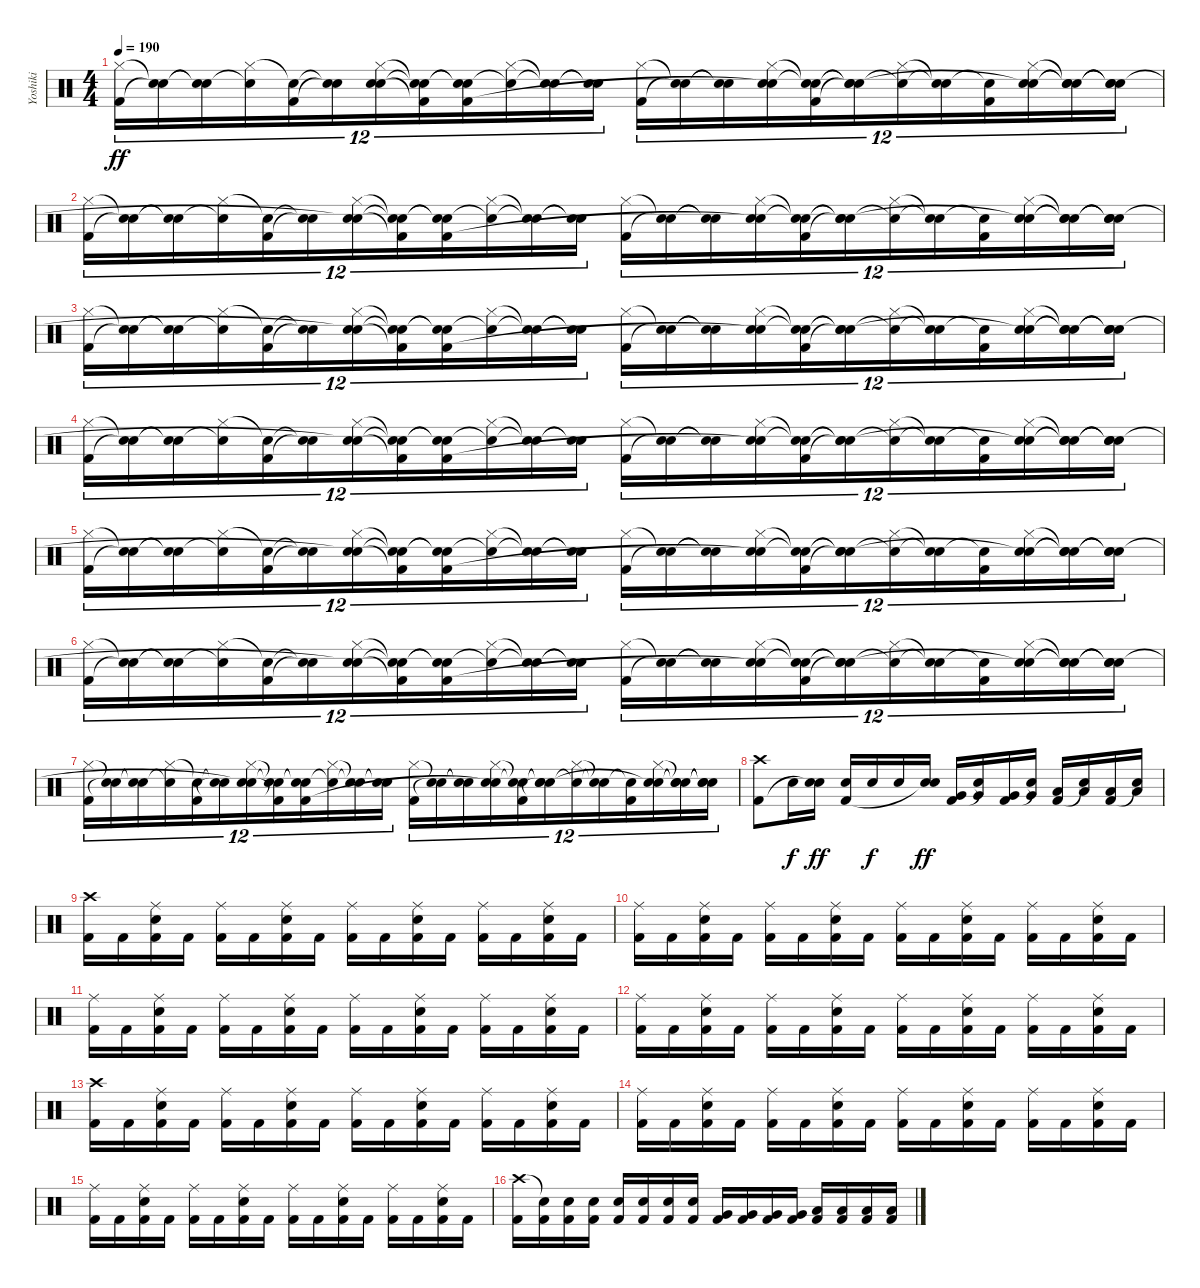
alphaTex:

\track ("Yoshiki" "Yoshiki") {instrument percussion}
\staff {score}
\articulation defaults
\ts (4 4)
\tempo 190
\clef neutral
\ks c
("Hi-Hat (closed)" "Kick (hit) 2").16{tu (12 8) dy ff} ("Snare (hit)"{t} "Snare (hit)"{t}).16{tu (12 8)} ("Snare (hit)"{t} "Snare (hit)"{t}).16{tu (12 8)} ("Hi-Hat (closed)" "Snare (hit)"{t}).16{tu (12 8)} ("Snare (hit)"{t} "Kick (hit) 2").16{tu (12 8)} ("Snare (hit)"{t} "Snare (hit)"{t}).16{tu (12 8)} ("Hi-Hat (closed)" "Snare (hit) 2" "Snare (hit)"{t}).16{tu (12 8)} ("Snare (hit)"{t} "Snare (hit)"{t} "Kick (hit) 2"{t}).16{tu (12 8)} ("Snare (hit)"{t} "Snare (hit)"{t} "Kick (hit) 2").16{tu (12 8)} ("Hi-Hat (closed)" "Snare (hit)"{t}).16{tu (12 8)} ("Snare (hit)"{t} "Snare (hit)"{t}).16{tu (12 8)} ("Snare (hit)"{t} "Snare (hit)"{t}).16{tu (12 8)} ("Hi-Hat (closed)" "Kick (hit) 2").16{tu (12 8)} ("Snare (hit)"{t} "Snare (hit)"{t}).16{tu (12 8)} ("Snare (hit)"{t} "Snare (hit)"{t}).16{tu (12 8)} ("Hi-Hat (closed)" "Snare (hit) 2" "Snare (hit)"{t}).16{tu (12 8)} ("Snare (hit)"{t} "Snare (hit)"{t} "Kick (hit) 2").16{tu (12 8)} ("Snare (hit)"{t} "Snare (hit)"{t} "Snare (hit)"{t}).16{tu (12 8)} ("Hi-Hat (closed)" "Snare (hit)"{t}).16{tu (12 8)} ("Snare (hit)"{t} "Snare (hit)"{t}).16{tu (12 8)} ("Snare (hit)"{t} "Kick (hit) 2").16{tu (12 8)} ("Hi-Hat (closed)" "Snare (hit) 2" "Snare (hit)"{t}).16{tu (12 8)} ("Snare (hit)"{t} "Snare (hit)"{t} "Snare (hit)"{t}).16{tu (12 8)} ("Snare (hit)"{t} "Snare (hit)"{t} "Snare (hit)"{t}).16{tu (12 8)} |
("Hi-Hat (closed)" "Kick (hit) 2").16{tu (12 8)} ("Snare (hit)"{t} "Snare (hit)"{t}).16{tu (12 8)} ("Snare (hit)"{t} "Snare (hit)"{t}).16{tu (12 8)} ("Hi-Hat (closed)" "Snare (hit)"{t}).16{tu (12 8)} ("Snare (hit)"{t} "Kick (hit) 2").16{tu (12 8)} ("Snare (hit)"{t} "Snare (hit)"{t}).16{tu (12 8)} ("Hi-Hat (closed)" "Snare (hit) 2" "Snare (hit)"{t}).16{tu (12 8)} ("Snare (hit)"{t} "Snare (hit)"{t} "Kick (hit) 2"{t}).16{tu (12 8)} ("Snare (hit)"{t} "Snare (hit)"{t} "Kick (hit) 2").16{tu (12 8)} ("Hi-Hat (closed)" "Snare (hit)"{t}).16{tu (12 8)} ("Snare (hit)"{t} "Snare (hit)"{t}).16{tu (12 8)} ("Snare (hit)"{t} "Snare (hit)"{t}).16{tu (12 8)} ("Hi-Hat (closed)" "Kick (hit) 2").16{tu (12 8)} ("Snare (hit)"{t} "Snare (hit)"{t}).16{tu (12 8)} ("Snare (hit)"{t} "Snare (hit)"{t}).16{tu (12 8)} ("Hi-Hat (closed)" "Snare (hit) 2" "Snare (hit)"{t}).16{tu (12 8)} ("Snare (hit)"{t} "Snare (hit)"{t} "Kick (hit) 2").16{tu (12 8)} ("Snare (hit)"{t} "Snare (hit)"{t} "Snare (hit)"{t}).16{tu (12 8)} ("Hi-Hat (closed)" "Snare (hit)"{t}).16{tu (12 8)} ("Snare (hit)"{t} "Snare (hit)"{t}).16{tu (12 8)} ("Snare (hit)"{t} "Kick (hit) 2").16{tu (12 8)} ("Hi-Hat (closed)" "Snare (hit) 2" "Snare (hit)"{t}).16{tu (12 8)} ("Snare (hit)"{t} "Snare (hit)"{t} "Snare (hit)"{t}).16{tu (12 8)} ("Snare (hit)"{t} "Snare (hit)"{t} "Snare (hit)"{t}).16{tu (12 8)} |
("Hi-Hat (closed)" "Kick (hit) 2").16{tu (12 8)} ("Snare (hit)"{t} "Snare (hit)"{t}).16{tu (12 8)} ("Snare (hit)"{t} "Snare (hit)"{t}).16{tu (12 8)} ("Hi-Hat (closed)" "Snare (hit)"{t}).16{tu (12 8)} ("Snare (hit)"{t} "Kick (hit) 2").16{tu (12 8)} ("Snare (hit)"{t} "Snare (hit)"{t}).16{tu (12 8)} ("Hi-Hat (closed)" "Snare (hit) 2" "Snare (hit)"{t}).16{tu (12 8)} ("Snare (hit)"{t} "Snare (hit)"{t} "Kick (hit) 2"{t}).16{tu (12 8)} ("Snare (hit)"{t} "Snare (hit)"{t} "Kick (hit) 2").16{tu (12 8)} ("Hi-Hat (closed)" "Snare (hit)"{t}).16{tu (12 8)} ("Snare (hit)"{t} "Snare (hit)"{t}).16{tu (12 8)} ("Snare (hit)"{t} "Snare (hit)"{t}).16{tu (12 8)} ("Hi-Hat (closed)" "Kick (hit) 2").16{tu (12 8)} ("Snare (hit)"{t} "Snare (hit)"{t}).16{tu (12 8)} ("Snare (hit)"{t} "Snare (hit)"{t}).16{tu (12 8)} ("Hi-Hat (closed)" "Snare (hit) 2" "Snare (hit)"{t}).16{tu (12 8)} ("Snare (hit)"{t} "Snare (hit)"{t} "Kick (hit) 2").16{tu (12 8)} ("Snare (hit)"{t} "Snare (hit)"{t} "Snare (hit)"{t}).16{tu (12 8)} ("Hi-Hat (closed)" "Snare (hit)"{t}).16{tu (12 8)} ("Snare (hit)"{t} "Snare (hit)"{t}).16{tu (12 8)} ("Snare (hit)"{t} "Kick (hit) 2").16{tu (12 8)} ("Hi-Hat (closed)" "Snare (hit) 2" "Snare (hit)"{t}).16{tu (12 8)} ("Snare (hit)"{t} "Snare (hit)"{t} "Snare (hit)"{t}).16{tu (12 8)} ("Snare (hit)"{t} "Snare (hit)"{t} "Snare (hit)"{t}).16{tu (12 8)} |
("Hi-Hat (closed)" "Kick (hit) 2").16{tu (12 8)} ("Snare (hit)"{t} "Snare (hit)"{t}).16{tu (12 8)} ("Snare (hit)"{t} "Snare (hit)"{t}).16{tu (12 8)} ("Hi-Hat (closed)" "Snare (hit)"{t}).16{tu (12 8)} ("Snare (hit)"{t} "Kick (hit) 2").16{tu (12 8)} ("Snare (hit)"{t} "Snare (hit)"{t}).16{tu (12 8)} ("Hi-Hat (closed)" "Snare (hit) 2" "Snare (hit)"{t}).16{tu (12 8)} ("Snare (hit)"{t} "Snare (hit)"{t} "Kick (hit) 2"{t}).16{tu (12 8)} ("Snare (hit)"{t} "Snare (hit)"{t} "Kick (hit) 2").16{tu (12 8)} ("Hi-Hat (closed)" "Snare (hit)"{t}).16{tu (12 8)} ("Snare (hit)"{t} "Snare (hit)"{t}).16{tu (12 8)} ("Snare (hit)"{t} "Snare (hit)"{t}).16{tu (12 8)} ("Hi-Hat (closed)" "Kick (hit) 2").16{tu (12 8)} ("Snare (hit)"{t} "Snare (hit)"{t}).16{tu (12 8)} ("Snare (hit)"{t} "Snare (hit)"{t}).16{tu (12 8)} ("Hi-Hat (closed)" "Snare (hit) 2" "Snare (hit)"{t}).16{tu (12 8)} ("Snare (hit)"{t} "Snare (hit)"{t} "Kick (hit) 2").16{tu (12 8)} ("Snare (hit)"{t} "Snare (hit)"{t} "Snare (hit)"{t}).16{tu (12 8)} ("Hi-Hat (closed)" "Snare (hit)"{t}).16{tu (12 8)} ("Snare (hit)"{t} "Snare (hit)"{t}).16{tu (12 8)} ("Snare (hit)"{t} "Kick (hit) 2").16{tu (12 8)} ("Hi-Hat (closed)" "Snare (hit) 2" "Snare (hit)"{t}).16{tu (12 8)} ("Snare (hit)"{t} "Snare (hit)"{t} "Snare (hit)"{t}).16{tu (12 8)} ("Snare (hit)"{t} "Snare (hit)"{t} "Snare (hit)"{t}).16{tu (12 8)} |
("Hi-Hat (closed)" "Kick (hit) 2").16{tu (12 8)} ("Snare (hit)"{t} "Snare (hit)"{t}).16{tu (12 8)} ("Snare (hit)"{t} "Snare (hit)"{t}).16{tu (12 8)} ("Hi-Hat (closed)" "Snare (hit)"{t}).16{tu (12 8)} ("Snare (hit)"{t} "Kick (hit) 2").16{tu (12 8)} ("Snare (hit)"{t} "Snare (hit)"{t}).16{tu (12 8)} ("Hi-Hat (closed)" "Snare (hit) 2" "Snare (hit)"{t}).16{tu (12 8)} ("Snare (hit)"{t} "Snare (hit)"{t} "Kick (hit) 2"{t}).16{tu (12 8)} ("Snare (hit)"{t} "Snare (hit)"{t} "Kick (hit) 2").16{tu (12 8)} ("Hi-Hat (closed)" "Snare (hit)"{t}).16{tu (12 8)} ("Snare (hit)"{t} "Snare (hit)"{t}).16{tu (12 8)} ("Snare (hit)"{t} "Snare (hit)"{t}).16{tu (12 8)} ("Hi-Hat (closed)" "Kick (hit) 2").16{tu (12 8)} ("Snare (hit)"{t} "Snare (hit)"{t}).16{tu (12 8)} ("Snare (hit)"{t} "Snare (hit)"{t}).16{tu (12 8)} ("Hi-Hat (closed)" "Snare (hit) 2" "Snare (hit)"{t}).16{tu (12 8)} ("Snare (hit)"{t} "Snare (hit)"{t} "Kick (hit) 2").16{tu (12 8)} ("Snare (hit)"{t} "Snare (hit)"{t} "Snare (hit)"{t}).16{tu (12 8)} ("Hi-Hat (closed)" "Snare (hit)"{t}).16{tu (12 8)} ("Snare (hit)"{t} "Snare (hit)"{t}).16{tu (12 8)} ("Snare (hit)"{t} "Kick (hit) 2").16{tu (12 8)} ("Hi-Hat (closed)" "Snare (hit) 2" "Snare (hit)"{t}).16{tu (12 8)} ("Snare (hit)"{t} "Snare (hit)"{t} "Snare (hit)"{t}).16{tu (12 8)} ("Snare (hit)"{t} "Snare (hit)"{t} "Snare (hit)"{t}).16{tu (12 8)} |
("Hi-Hat (closed)" "Kick (hit) 2").16{tu (12 8)} ("Snare (hit)"{t} "Snare (hit)"{t}).16{tu (12 8)} ("Snare (hit)"{t} "Snare (hit)"{t}).16{tu (12 8)} ("Hi-Hat (closed)" "Snare (hit)"{t}).16{tu (12 8)} ("Snare (hit)"{t} "Kick (hit) 2").16{tu (12 8)} ("Snare (hit)"{t} "Snare (hit)"{t}).16{tu (12 8)} ("Hi-Hat (closed)" "Snare (hit) 2" "Snare (hit)"{t}).16{tu (12 8)} ("Snare (hit)"{t} "Snare (hit)"{t} "Kick (hit) 2"{t}).16{tu (12 8)} ("Snare (hit)"{t} "Snare (hit)"{t} "Kick (hit) 2").16{tu (12 8)} ("Hi-Hat (closed)" "Snare (hit)"{t}).16{tu (12 8)} ("Snare (hit)"{t} "Snare (hit)"{t}).16{tu (12 8)} ("Snare (hit)"{t} "Snare (hit)"{t}).16{tu (12 8)} ("Hi-Hat (closed)" "Kick (hit) 2").16{tu (12 8)} ("Snare (hit)"{t} "Snare (hit)"{t}).16{tu (12 8)} ("Snare (hit)"{t} "Snare (hit)"{t}).16{tu (12 8)} ("Hi-Hat (closed)" "Snare (hit) 2" "Snare (hit)"{t}).16{tu (12 8)} ("Snare (hit)"{t} "Snare (hit)"{t} "Kick (hit) 2").16{tu (12 8)} ("Snare (hit)"{t} "Snare (hit)"{t} "Snare (hit)"{t}).16{tu (12 8)} ("Hi-Hat (closed)" "Snare (hit)"{t}).16{tu (12 8)} ("Snare (hit)"{t} "Snare (hit)"{t}).16{tu (12 8)} ("Snare (hit)"{t} "Kick (hit) 2").16{tu (12 8)} ("Hi-Hat (closed)" "Snare (hit) 2" "Snare (hit)"{t}).16{tu (12 8)} ("Snare (hit)"{t} "Snare (hit)"{t} "Snare (hit)"{t}).16{tu (12 8)} ("Snare (hit)"{t} "Snare (hit)"{t} "Snare (hit)"{t}).16{tu (12 8)} |
("Hi-Hat (closed)" "Kick (hit) 2").16{tu (12 8)} ("Snare (hit)"{t} "Snare (hit)"{t}).16{tu (12 8)} ("Snare (hit)"{t} "Snare (hit)"{t}).16{tu (12 8)} ("Hi-Hat (closed)" "Snare (hit)"{t}).16{tu (12 8)} ("Snare (hit)"{t} "Kick (hit) 2").16{tu (12 8)} ("Snare (hit)"{t} "Snare (hit)"{t}).16{tu (12 8)} ("Hi-Hat (closed)" "Snare (hit) 2" "Snare (hit)"{t}).16{tu (12 8)} ("Snare (hit)"{t} "Snare (hit)"{t} "Kick (hit) 2"{t}).16{tu (12 8)} ("Snare (hit)"{t} "Snare (hit)"{t} "Kick (hit) 2").16{tu (12 8)} ("Hi-Hat (closed)" "Snare (hit)"{t}).16{tu (12 8)} ("Snare (hit)"{t} "Snare (hit)"{t}).16{tu (12 8)} ("Snare (hit)"{t} "Snare (hit)"{t}).16{tu (12 8)} ("Hi-Hat (closed)" "Kick (hit) 2").16{tu (12 8)} ("Snare (hit)"{t} "Snare (hit)"{t}).16{tu (12 8)} ("Snare (hit)"{t} "Snare (hit)"{t}).16{tu (12 8)} ("Hi-Hat (closed)" "Snare (hit) 2" "Snare (hit)"{t}).16{tu (12 8)} ("Snare (hit)"{t} "Snare (hit)"{t} "Kick (hit) 2").16{tu (12 8)} ("Snare (hit)"{t} "Snare (hit)"{t} "Snare (hit)"{t}).16{tu (12 8)} ("Hi-Hat (closed)" "Snare (hit)"{t}).16{tu (12 8)} ("Snare (hit)"{t} "Snare (hit)"{t}).16{tu (12 8)} ("Snare (hit)"{t} "Kick (hit) 2").16{tu (12 8)} ("Hi-Hat (closed)" "Snare (hit) 2" "Snare (hit)"{t}).16{tu (12 8)} ("Snare (hit)"{t} "Snare (hit)"{t} "Snare (hit)"{t}).16{tu (12 8)} ("Snare (hit)"{t} "Snare (hit)"{t} "Snare (hit)"{t}).16{tu (12 8)} |
("Crash high (hit)" "Kick (hit) 2").8 "Snare (hit) 2".16{dy f} ("Snare (hit) 2" "Snare (hit)"{t}).16{dy ff} ("Snare (hit) 2" "Kick (hit) 2").16 "Snare (hit) 2".16{dy f} "Snare (hit) 2".16 ("Snare (hit) 2" "Snare (hit)"{t}).16{dy ff} ("Very Low Tom (hit)" "Kick (hit) 2").16 ("Very Low Tom (hit)" "Snare (hit)"{t}).16 ("Very Low Tom (hit)" "Kick (hit) 2").16 ("Very Low Tom (hit)" "Snare (hit)"{t}).16 ("Low Floor Tom (hit)" "Kick (hit) 2").16 ("Low Floor Tom (hit)" "Snare (hit)"{t}).16 ("Low Floor Tom (hit)" "Kick (hit) 2").16 ("Low Floor Tom (hit)" "Snare (hit)"{t}).16 |
("Crash high (hit)" "Kick (hit) 2").16 "Kick (hit) 2".16 ("Ride (middle)" "Snare (hit) 2" "Kick (hit) 2").16 "Kick (hit) 2".16 ("Ride (middle)" "Kick (hit) 2").16 "Kick (hit) 2".16 ("Ride (middle)" "Snare (hit) 2" "Kick (hit) 2").16 "Kick (hit) 2".16 ("Ride (middle)" "Kick (hit) 2").16 "Kick (hit) 2".16 ("Ride (middle)" "Snare (hit) 2" "Kick (hit) 2").16 "Kick (hit) 2".16 ("Ride (middle)" "Kick (hit) 2").16 "Kick (hit) 2".16 ("Ride (middle)" "Snare (hit) 2" "Kick (hit) 2").16 "Kick (hit) 2".16 |
("Ride (middle)" "Kick (hit) 2").16 "Kick (hit) 2".16 ("Ride (middle)" "Snare (hit) 2" "Kick (hit) 2").16 "Kick (hit) 2".16 ("Ride (middle)" "Kick (hit) 2").16 "Kick (hit) 2".16 ("Ride (middle)" "Snare (hit) 2" "Kick (hit) 2").16 "Kick (hit) 2".16 ("Ride (middle)" "Kick (hit) 2").16 "Kick (hit) 2".16 ("Ride (middle)" "Snare (hit) 2" "Kick (hit) 2").16 "Kick (hit) 2".16 ("Ride (middle)" "Kick (hit) 2").16 "Kick (hit) 2".16 ("Ride (middle)" "Snare (hit) 2" "Kick (hit) 2").16 "Kick (hit) 2".16 |
("Ride (middle)" "Kick (hit) 2").16 "Kick (hit) 2".16 ("Ride (middle)" "Snare (hit) 2" "Kick (hit) 2").16 "Kick (hit) 2".16 ("Ride (middle)" "Kick (hit) 2").16 "Kick (hit) 2".16 ("Ride (middle)" "Snare (hit) 2" "Kick (hit) 2").16 "Kick (hit) 2".16 ("Ride (middle)" "Kick (hit) 2").16 "Kick (hit) 2".16 ("Ride (middle)" "Snare (hit) 2" "Kick (hit) 2").16 "Kick (hit) 2".16 ("Ride (middle)" "Kick (hit) 2").16 "Kick (hit) 2".16 ("Ride (middle)" "Snare (hit) 2" "Kick (hit) 2").16 "Kick (hit) 2".16 |
("Ride (middle)" "Kick (hit) 2").16 "Kick (hit) 2".16 ("Ride (middle)" "Snare (hit) 2" "Kick (hit) 2").16 "Kick (hit) 2".16 ("Ride (middle)" "Kick (hit) 2").16 "Kick (hit) 2".16 ("Ride (middle)" "Snare (hit) 2" "Kick (hit) 2").16 "Kick (hit) 2".16 ("Ride (middle)" "Kick (hit) 2").16 "Kick (hit) 2".16 ("Ride (middle)" "Snare (hit) 2" "Kick (hit) 2").16 "Kick (hit) 2".16 ("Ride (middle)" "Kick (hit) 2").16 "Kick (hit) 2".16 ("Ride (middle)" "Snare (hit) 2" "Kick (hit) 2").16 "Kick (hit) 2".16 |
("Crash high (hit)" "Kick (hit) 2").16 "Kick (hit) 2".16 ("Ride (middle)" "Snare (hit) 2" "Kick (hit) 2").16 "Kick (hit) 2".16 ("Ride (middle)" "Kick (hit) 2").16 "Kick (hit) 2".16 ("Ride (middle)" "Snare (hit) 2" "Kick (hit) 2").16 "Kick (hit) 2".16 ("Ride (middle)" "Kick (hit) 2").16 "Kick (hit) 2".16 ("Ride (middle)" "Snare (hit) 2" "Kick (hit) 2").16 "Kick (hit) 2".16 ("Ride (middle)" "Kick (hit) 2").16 "Kick (hit) 2".16 ("Ride (middle)" "Snare (hit) 2" "Kick (hit) 2").16 "Kick (hit) 2".16 |
("Ride (middle)" "Kick (hit) 2").16 "Kick (hit) 2".16 ("Ride (middle)" "Snare (hit) 2" "Kick (hit) 2").16 "Kick (hit) 2".16 ("Ride (middle)" "Kick (hit) 2").16 "Kick (hit) 2".16 ("Ride (middle)" "Snare (hit) 2" "Kick (hit) 2").16 "Kick (hit) 2".16 ("Ride (middle)" "Kick (hit) 2").16 "Kick (hit) 2".16 ("Ride (middle)" "Snare (hit) 2" "Kick (hit) 2").16 "Kick (hit) 2".16 ("Ride (middle)" "Kick (hit) 2").16 "Kick (hit) 2".16 ("Ride (middle)" "Snare (hit) 2" "Kick (hit) 2").16 "Kick (hit) 2".16 |
("Ride (middle)" "Kick (hit) 2").16 "Kick (hit) 2".16 ("Ride (middle)" "Snare (hit) 2" "Kick (hit) 2").16 "Kick (hit) 2".16 ("Ride (middle)" "Kick (hit) 2").16 "Kick (hit) 2".16 ("Ride (middle)" "Snare (hit) 2" "Kick (hit) 2").16 "Kick (hit) 2".16 ("Ride (middle)" "Kick (hit) 2").16 "Kick (hit) 2".16 ("Ride (middle)" "Snare (hit) 2" "Kick (hit) 2").16 "Kick (hit) 2".16 ("Ride (middle)" "Kick (hit) 2").16 "Kick (hit) 2".16 ("Ride (middle)" "Snare (hit) 2" "Kick (hit) 2").16 "Kick (hit) 2".16 |
("Crash high (hit)" "Kick (hit) 2").16 ("Snare (hit)"{t} "Kick (hit) 2").16 ("Snare (hit) 2" "Kick (hit) 2").16 ("Snare (hit) 2" "Kick (hit) 2").16 ("Snare (hit) 2" "Kick (hit) 2").16 ("Snare (hit) 2" "Kick (hit) 2").16 ("Snare (hit) 2" "Kick (hit) 2").16 ("Snare (hit) 2" "Kick (hit) 2").16 ("Very Low Tom (hit)" "Kick (hit) 2").16 ("Very Low Tom (hit)" "Kick (hit) 2").16 ("Very Low Tom (hit)" "Kick (hit) 2").16 ("Very Low Tom (hit)" "Kick (hit) 2").16 ("Low Floor Tom (hit)" "Kick (hit) 2").16 ("Low Floor Tom (hit)" "Kick (hit) 2").16 ("Low Floor Tom (hit)" "Kick (hit) 2").16 ("Low Floor Tom (hit)" "Kick (hit) 2").16
